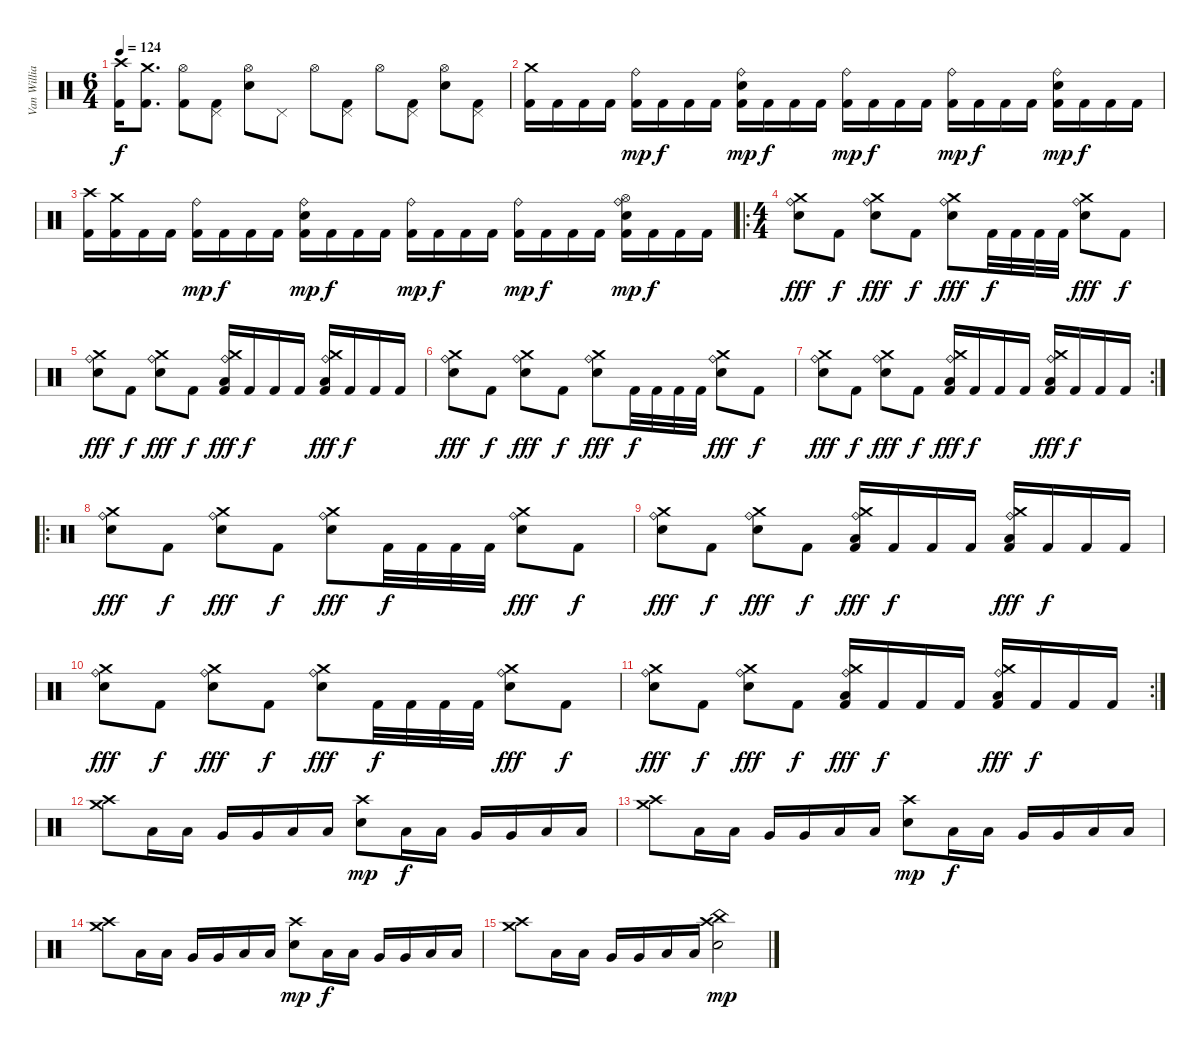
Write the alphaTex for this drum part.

\track ("Van Williams" "Van Willia") {instrument percussion}
\staff {score}
\articulation defaults
\ts (6 4)
\tempo 124
\clef neutral
\ks c
("Crash high (hit)" "Kick (hit) 2").16{dy f} ("Crash medium (hit)" "Kick (hit) 2").8{d} ("Hi-Hat (open)" "Kick (hit) 2").8 ("Pedal Hi-Hat (hit)" "Kick (hit) 2").8 ("Hi-Hat (open)" "Electric Snare (hit)").8 "Pedal Hi-Hat (hit)".8 "Hi-Hat (open)".8 ("Pedal Hi-Hat (hit)" "Kick (hit) 2").8 "Hi-Hat (open)".8 ("Pedal Hi-Hat (hit)" "Kick (hit) 2").8 ("Hi-Hat (open)" "Electric Snare (hit)").8 ("Pedal Hi-Hat (hit)" "Kick (hit) 2").8 |
("Crash medium (hit)" "Kick (hit) 2").16 "Kick (hit) 2".16 "Kick (hit) 2".16 "Kick (hit) 2".16 ("Ride (bell)" "Kick (hit) 2").16{dy mp} "Kick (hit) 2".16{dy f} "Kick (hit) 2".16 "Kick (hit) 2".16 ("Ride (bell)" "Electric Snare (hit)" "Kick (hit) 2").16{dy mp} "Kick (hit) 2".16{dy f} "Kick (hit) 2".16 "Kick (hit) 2".16 ("Ride (bell)" "Kick (hit) 2").16{dy mp} "Kick (hit) 2".16{dy f} "Kick (hit) 2".16 "Kick (hit) 2".16 ("Ride (bell)" "Kick (hit) 2").16{dy mp} "Kick (hit) 2".16{dy f} "Kick (hit) 2".16 "Kick (hit) 2".16 ("Ride (bell)" "Electric Snare (hit)" "Kick (hit) 2").16{dy mp} "Kick (hit) 2".16{dy f} "Kick (hit) 2".16 "Kick (hit) 2".16 |
("Crash high (hit)" "Kick (hit) 2").16 ("Crash medium (hit)" "Kick (hit) 2").16 "Kick (hit) 2".16 "Kick (hit) 2".16 ("Ride (bell)" "Kick (hit) 2").16{dy mp} "Kick (hit) 2".16{dy f} "Kick (hit) 2".16 "Kick (hit) 2".16 ("Ride (bell)" "Electric Snare (hit)" "Kick (hit) 2").16{dy mp} "Kick (hit) 2".16{dy f} "Kick (hit) 2".16 "Kick (hit) 2".16 ("Ride (bell)" "Kick (hit) 2").16{dy mp} "Kick (hit) 2".16{dy f} "Kick (hit) 2".16 "Kick (hit) 2".16 ("Ride (bell)" "Kick (hit) 2").16{dy mp} "Kick (hit) 2".16{dy f} "Kick (hit) 2".16 "Kick (hit) 2".16 ("Ride (bell)" "Hi-Hat (open)" "Electric Snare (hit)" "Kick (hit) 2").16{dy mp} "Kick (hit) 2".16{dy f} "Kick (hit) 2".16 "Kick (hit) 2".16 |
\ro
\ts (4 4)
("Crash medium (hit)" "Ride (bell)" "Electric Snare (hit)").8{dy fff} "Kick (hit) 2".8{dy f} ("Crash medium (hit)" "Ride (bell)" "Electric Snare (hit)").8{dy fff} "Kick (hit) 2".8{dy f} ("Crash medium (hit)" "Ride (bell)" "Electric Snare (hit)").8{dy fff} "Kick (hit) 2".32{dy f} "Kick (hit) 2".32 "Kick (hit) 2".32 "Kick (hit) 2".32 ("Crash medium (hit)" "Ride (bell)" "Electric Snare (hit)").8{dy fff} "Kick (hit) 2".8{dy f} |
("Crash medium (hit)" "Ride (bell)" "Electric Snare (hit)").8{dy fff} "Kick (hit) 2".8{dy f} ("Crash medium (hit)" "Ride (bell)" "Electric Snare (hit)").8{dy fff} "Kick (hit) 2".8{dy f} ("Crash medium (hit)" "Ride (bell)" "Low Floor Tom (hit)" "Kick (hit) 2").16{dy fff} "Kick (hit) 2".16{dy f} "Kick (hit) 2".16 "Kick (hit) 2".16 ("Crash medium (hit)" "Ride (bell)" "Low Floor Tom (hit)" "Kick (hit) 2").16{dy fff} "Kick (hit) 2".16{dy f} "Kick (hit) 2".16 "Kick (hit) 2".16 |
("Crash medium (hit)" "Ride (bell)" "Electric Snare (hit)").8{dy fff} "Kick (hit) 2".8{dy f} ("Crash medium (hit)" "Ride (bell)" "Electric Snare (hit)").8{dy fff} "Kick (hit) 2".8{dy f} ("Crash medium (hit)" "Ride (bell)" "Electric Snare (hit)").8{dy fff} "Kick (hit) 2".32{dy f} "Kick (hit) 2".32 "Kick (hit) 2".32 "Kick (hit) 2".32 ("Crash medium (hit)" "Ride (bell)" "Electric Snare (hit)").8{dy fff} "Kick (hit) 2".8{dy f} |
\rc 2
("Crash medium (hit)" "Ride (bell)" "Electric Snare (hit)").8{dy fff} "Kick (hit) 2".8{dy f} ("Crash medium (hit)" "Ride (bell)" "Electric Snare (hit)").8{dy fff} "Kick (hit) 2".8{dy f} ("Crash medium (hit)" "Ride (bell)" "Low Floor Tom (hit)" "Kick (hit) 2").16{dy fff} "Kick (hit) 2".16{dy f} "Kick (hit) 2".16 "Kick (hit) 2".16 ("Crash medium (hit)" "Ride (bell)" "Low Floor Tom (hit)" "Kick (hit) 2").16{dy fff} "Kick (hit) 2".16{dy f} "Kick (hit) 2".16 "Kick (hit) 2".16 |
\ro
("Crash medium (hit)" "Ride (bell)" "Electric Snare (hit)").8{dy fff} "Kick (hit) 2".8{dy f} ("Crash medium (hit)" "Ride (bell)" "Electric Snare (hit)").8{dy fff} "Kick (hit) 2".8{dy f} ("Crash medium (hit)" "Ride (bell)" "Electric Snare (hit)").8{dy fff} "Kick (hit) 2".32{dy f} "Kick (hit) 2".32 "Kick (hit) 2".32 "Kick (hit) 2".32 ("Crash medium (hit)" "Ride (bell)" "Electric Snare (hit)").8{dy fff} "Kick (hit) 2".8{dy f} |
("Crash medium (hit)" "Ride (bell)" "Electric Snare (hit)").8{dy fff} "Kick (hit) 2".8{dy f} ("Crash medium (hit)" "Ride (bell)" "Electric Snare (hit)").8{dy fff} "Kick (hit) 2".8{dy f} ("Crash medium (hit)" "Ride (bell)" "Low Floor Tom (hit)" "Kick (hit) 2").16{dy fff} "Kick (hit) 2".16{dy f} "Kick (hit) 2".16 "Kick (hit) 2".16 ("Crash medium (hit)" "Ride (bell)" "Low Floor Tom (hit)" "Kick (hit) 2").16{dy fff} "Kick (hit) 2".16{dy f} "Kick (hit) 2".16 "Kick (hit) 2".16 |
("Crash medium (hit)" "Ride (bell)" "Electric Snare (hit)").8{dy fff} "Kick (hit) 2".8{dy f} ("Crash medium (hit)" "Ride (bell)" "Electric Snare (hit)").8{dy fff} "Kick (hit) 2".8{dy f} ("Crash medium (hit)" "Ride (bell)" "Electric Snare (hit)").8{dy fff} "Kick (hit) 2".32{dy f} "Kick (hit) 2".32 "Kick (hit) 2".32 "Kick (hit) 2".32 ("Crash medium (hit)" "Ride (bell)" "Electric Snare (hit)").8{dy fff} "Kick (hit) 2".8{dy f} |
\rc 2
("Crash medium (hit)" "Ride (bell)" "Electric Snare (hit)").8{dy fff} "Kick (hit) 2".8{dy f} ("Crash medium (hit)" "Ride (bell)" "Electric Snare (hit)").8{dy fff} "Kick (hit) 2".8{dy f} ("Crash medium (hit)" "Ride (bell)" "Low Floor Tom (hit)" "Kick (hit) 2").16{dy fff} "Kick (hit) 2".16{dy f} "Kick (hit) 2".16 "Kick (hit) 2".16 ("Crash medium (hit)" "Ride (bell)" "Low Floor Tom (hit)" "Kick (hit) 2").16{dy fff} "Kick (hit) 2".16{dy f} "Kick (hit) 2".16 "Kick (hit) 2".16 |
("Crash medium (hit)" "Crash high (hit)").8 "Low Tom (hit)".16 "Low Tom (hit)".16 "Very Low Tom (hit)".16 "Very Low Tom (hit)".16 "Low Floor Tom (hit)".16 "Low Floor Tom (hit)".16 ("Crash high (hit)" "Electric Snare (hit)").8{dy mp} "Low Tom (hit)".16{dy f} "Low Tom (hit)".16 "Very Low Tom (hit)".16 "Very Low Tom (hit)".16 "Low Floor Tom (hit)".16 "Low Floor Tom (hit)".16 |
("Crash medium (hit)" "Crash high (hit)").8 "Low Tom (hit)".16 "Low Tom (hit)".16 "Very Low Tom (hit)".16 "Very Low Tom (hit)".16 "Low Floor Tom (hit)".16 "Low Floor Tom (hit)".16 ("Crash high (hit)" "Electric Snare (hit)").8{dy mp} "Low Tom (hit)".16{dy f} "Low Tom (hit)".16 "Very Low Tom (hit)".16 "Very Low Tom (hit)".16 "Low Floor Tom (hit)".16 "Low Floor Tom (hit)".16 |
("Crash medium (hit)" "Crash high (hit)").8 "Low Tom (hit)".16 "Low Tom (hit)".16 "Very Low Tom (hit)".16 "Very Low Tom (hit)".16 "Low Floor Tom (hit)".16 "Low Floor Tom (hit)".16 ("Crash high (hit)" "Electric Snare (hit)").8{dy mp} "Low Tom (hit)".16{dy f} "Low Tom (hit)".16 "Very Low Tom (hit)".16 "Very Low Tom (hit)".16 "Low Floor Tom (hit)".16 "Low Floor Tom (hit)".16 |
("Crash medium (hit)" "Crash high (hit)").8 "Low Tom (hit)".16 "Low Tom (hit)".16 "Very Low Tom (hit)".16 "Very Low Tom (hit)".16 "Low Floor Tom (hit)".16 "Low Floor Tom (hit)".16 ("China (hit)" "Crash high (hit)" "Electric Snare (hit)").2{dy mp}
